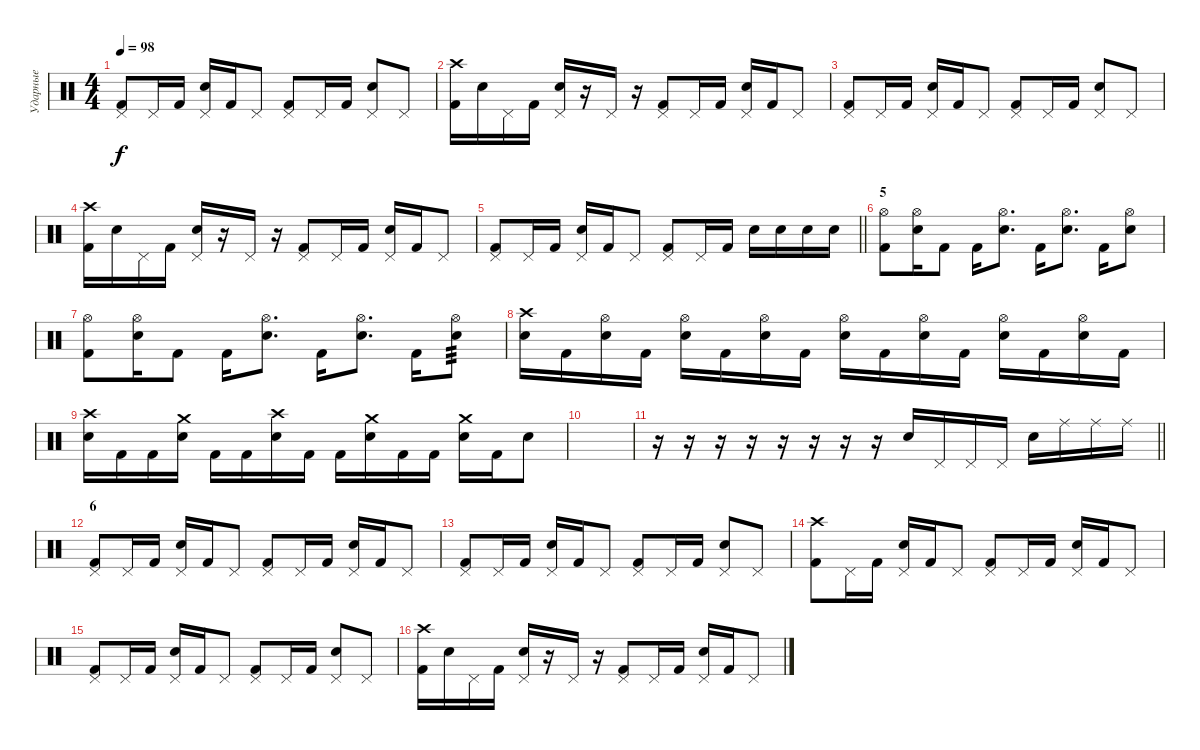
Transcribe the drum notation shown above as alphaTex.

\track ("Ударные" "Ударные") {instrument percussion}
\staff {score}
\articulation defaults
\ts (4 4)
\tempo 98
\clef neutral
\ks c
("Kick (hit) 2" "Pedal Hi-Hat (hit)").8{dy f} "Pedal Hi-Hat (hit)".16 "Kick (hit) 2".16 ("Electric Snare (hit)" "Pedal Hi-Hat (hit)").16 "Kick (hit) 2".16 "Pedal Hi-Hat (hit)".8 ("Kick (hit) 2" "Pedal Hi-Hat (hit)").8 "Pedal Hi-Hat (hit)".16 "Kick (hit) 2".16 ("Electric Snare (hit)" "Pedal Hi-Hat (hit)").8 "Pedal Hi-Hat (hit)".8 |
("Kick (hit) 2" "Crash high (hit)").16 "Electric Snare (hit)".16 "Pedal Hi-Hat (hit)".16 "Kick (hit) 2".16 ("Electric Snare (hit)" "Pedal Hi-Hat (hit)").16 r.16 "Pedal Hi-Hat (hit)".16 r.16 ("Kick (hit) 2" "Pedal Hi-Hat (hit)").8 "Pedal Hi-Hat (hit)".16 "Kick (hit) 2".16 ("Electric Snare (hit)" "Pedal Hi-Hat (hit)").16 "Kick (hit) 2".16 "Pedal Hi-Hat (hit)".8 |
("Kick (hit) 2" "Pedal Hi-Hat (hit)").8 "Pedal Hi-Hat (hit)".16 "Kick (hit) 2".16 ("Electric Snare (hit)" "Pedal Hi-Hat (hit)").16 "Kick (hit) 2".16 "Pedal Hi-Hat (hit)".8 ("Kick (hit) 2" "Pedal Hi-Hat (hit)").8 "Pedal Hi-Hat (hit)".16 "Kick (hit) 2".16 ("Electric Snare (hit)" "Pedal Hi-Hat (hit)").8 "Pedal Hi-Hat (hit)".8 |
("Kick (hit) 2" "Crash high (hit)").16 "Electric Snare (hit)".16 "Pedal Hi-Hat (hit)".16 "Kick (hit) 2".16 ("Electric Snare (hit)" "Pedal Hi-Hat (hit)").16 r.16 "Pedal Hi-Hat (hit)".16 r.16 ("Kick (hit) 2" "Pedal Hi-Hat (hit)").8 "Pedal Hi-Hat (hit)".16 "Kick (hit) 2".16 ("Electric Snare (hit)" "Pedal Hi-Hat (hit)").16 "Kick (hit) 2".16 "Pedal Hi-Hat (hit)".8 |
\barLineRight lightlight
("Kick (hit) 2" "Pedal Hi-Hat (hit)").8 "Pedal Hi-Hat (hit)".16 "Kick (hit) 2".16 ("Electric Snare (hit)" "Pedal Hi-Hat (hit)").16 "Kick (hit) 2".16 "Pedal Hi-Hat (hit)".8 ("Kick (hit) 2" "Pedal Hi-Hat (hit)").8 "Pedal Hi-Hat (hit)".16 "Kick (hit) 2".16 "Electric Snare (hit)".16 "Electric Snare (hit)".16 "Electric Snare (hit)".16 "Electric Snare (hit)".16 |
\section ("" "5")
("Kick (hit) 2" "Hi-Hat (open)").8 ("Electric Snare (hit)" "Hi-Hat (open)").16 "Kick (hit) 2".8 "Kick (hit) 2".16 ("Electric Snare (hit)" "Hi-Hat (open)").8{d} "Kick (hit) 2".16 ("Electric Snare (hit)" "Hi-Hat (open)").8{d} "Kick (hit) 2".16 ("Electric Snare (hit)" "Hi-Hat (open)").8 |
("Kick (hit) 2" "Hi-Hat (open)").8 ("Electric Snare (hit)" "Hi-Hat (open)").16 "Kick (hit) 2".8 "Kick (hit) 2".16 ("Electric Snare (hit)" "Hi-Hat (open)").8{d} "Kick (hit) 2".16 ("Electric Snare (hit)" "Hi-Hat (open)").8{d} "Kick (hit) 2".16 ("Electric Snare (hit)" "Hi-Hat (open)").8{tp 3} |
("Electric Snare (hit)" "Crash high (hit)").16 "Kick (hit) 2".16 ("Electric Snare (hit)" "Hi-Hat (open)").16 "Kick (hit) 2".16 ("Electric Snare (hit)" "Hi-Hat (open)").16 "Kick (hit) 2".16 ("Electric Snare (hit)" "Hi-Hat (open)").16 "Kick (hit) 2".16 ("Electric Snare (hit)" "Hi-Hat (open)").16 "Kick (hit) 2".16 ("Electric Snare (hit)" "Hi-Hat (open)").16 "Kick (hit) 2".16 ("Electric Snare (hit)" "Hi-Hat (open)").16 "Kick (hit) 2".16 ("Electric Snare (hit)" "Hi-Hat (open)").16 "Kick (hit) 2".16 |
("Electric Snare (hit)" "Crash high (hit)").16 "Kick (hit) 2".16 "Kick (hit) 2".16 ("Electric Snare (hit)" "Crash medium (hit)").16 "Kick (hit) 2".16 "Kick (hit) 2".16 ("Electric Snare (hit)" "Crash high (hit)").16 "Kick (hit) 2".16 "Kick (hit) 2".16 ("Electric Snare (hit)" "Crash medium (hit)").16 "Kick (hit) 2".16 "Kick (hit) 2".16 ("Electric Snare (hit)" "Crash medium (hit)").16 "Kick (hit) 2".16 "Electric Snare (hit)".8 |
|
\barLineRight lightlight
r.16 r.16 r.16 r.16 r.16 r.16 r.16 r.16 "Electric Snare (hit)".16 "Pedal Hi-Hat (hit)".16 "Pedal Hi-Hat (hit)".16 "Pedal Hi-Hat (hit)".16 "Electric Snare (hit)".16 "Ride (middle)".16 "Ride (middle)".16 "Ride (middle)".16 |
\section ("" "6")
("Kick (hit) 2" "Pedal Hi-Hat (hit)").8 "Pedal Hi-Hat (hit)".16 "Kick (hit) 2".16 ("Electric Snare (hit)" "Pedal Hi-Hat (hit)").16 "Kick (hit) 2".16 "Pedal Hi-Hat (hit)".8 ("Kick (hit) 2" "Pedal Hi-Hat (hit)").8 "Pedal Hi-Hat (hit)".16 "Kick (hit) 2".16 ("Electric Snare (hit)" "Pedal Hi-Hat (hit)").16 "Kick (hit) 2".16 "Pedal Hi-Hat (hit)".8 |
("Kick (hit) 2" "Pedal Hi-Hat (hit)").8 "Pedal Hi-Hat (hit)".16 "Kick (hit) 2".16 ("Electric Snare (hit)" "Pedal Hi-Hat (hit)").16 "Kick (hit) 2".16 "Pedal Hi-Hat (hit)".8 ("Kick (hit) 2" "Pedal Hi-Hat (hit)").8 "Pedal Hi-Hat (hit)".16 "Kick (hit) 2".16 ("Electric Snare (hit)" "Pedal Hi-Hat (hit)").8 "Pedal Hi-Hat (hit)".8 |
("Kick (hit) 2" "Crash high (hit)").8 "Pedal Hi-Hat (hit)".16 "Kick (hit) 2".16 ("Electric Snare (hit)" "Pedal Hi-Hat (hit)").16 "Kick (hit) 2".16 "Pedal Hi-Hat (hit)".8 ("Kick (hit) 2" "Pedal Hi-Hat (hit)").8 "Pedal Hi-Hat (hit)".16 "Kick (hit) 2".16 ("Electric Snare (hit)" "Pedal Hi-Hat (hit)").16 "Kick (hit) 2".16 "Pedal Hi-Hat (hit)".8 |
("Kick (hit) 2" "Pedal Hi-Hat (hit)").8 "Pedal Hi-Hat (hit)".16 "Kick (hit) 2".16 ("Electric Snare (hit)" "Pedal Hi-Hat (hit)").16 "Kick (hit) 2".16 "Pedal Hi-Hat (hit)".8 ("Kick (hit) 2" "Pedal Hi-Hat (hit)").8 "Pedal Hi-Hat (hit)".16 "Kick (hit) 2".16 ("Electric Snare (hit)" "Pedal Hi-Hat (hit)").8 "Pedal Hi-Hat (hit)".8 |
("Kick (hit) 2" "Crash high (hit)").16 "Electric Snare (hit)".16 "Pedal Hi-Hat (hit)".16 "Kick (hit) 2".16 ("Electric Snare (hit)" "Pedal Hi-Hat (hit)").16 r.16 "Pedal Hi-Hat (hit)".16 r.16 ("Kick (hit) 2" "Pedal Hi-Hat (hit)").8 "Pedal Hi-Hat (hit)".16 "Kick (hit) 2".16 ("Electric Snare (hit)" "Pedal Hi-Hat (hit)").16 "Kick (hit) 2".16 "Pedal Hi-Hat (hit)".8
